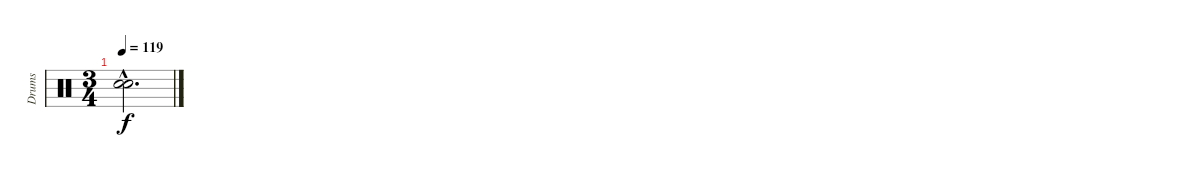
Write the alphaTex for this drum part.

\track ("Drums" "Drums") {instrument percussion}
\staff {score}
\articulation defaults
\ts (3 4)
\tempo 119
\clef neutral
\ks c
("Snare (hit)"{hac t} "Snare (hit)"{hac t}).2{d dy f}
